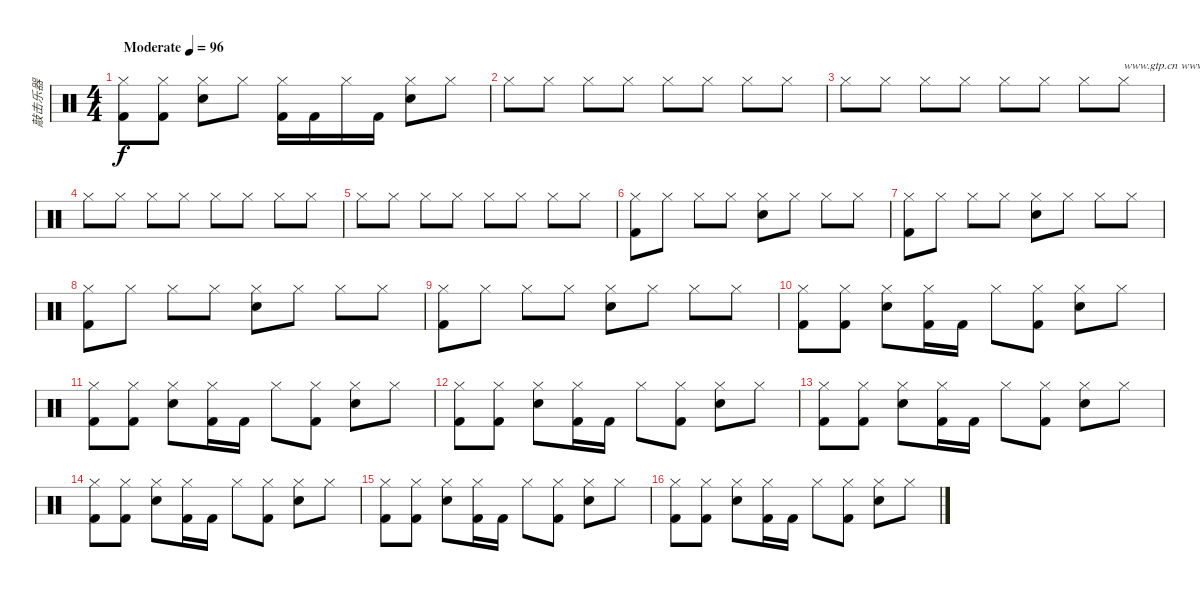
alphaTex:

\track ("敲击乐器" "敲击乐器") {instrument percussion}
\staff {score}
\articulation defaults
\ts (4 4)
\tempo (96 "Moderate")
\clef neutral
\ks c
("Hi-Hat (closed)" "Kick (hit) 2").8{dy f} ("Hi-Hat (closed)" "Kick (hit) 2").8 ("Hi-Hat (closed)" "Electric Snare (hit)").8 "Hi-Hat (closed)".8 ("Hi-Hat (closed)" "Kick (hit) 2").16 "Kick (hit) 2".16 "Hi-Hat (closed)".16 "Kick (hit) 2".16 ("Hi-Hat (closed)" "Electric Snare (hit)").8 "Hi-Hat (closed)".8 |
"Hi-Hat (closed)".8 "Hi-Hat (closed)".8 "Hi-Hat (closed)".8 "Hi-Hat (closed)".8 "Hi-Hat (closed)".8 "Hi-Hat (closed)".8 "Hi-Hat (closed)".8 "Hi-Hat (closed)".8 |
"Hi-Hat (closed)".8 "Hi-Hat (closed)".8 "Hi-Hat (closed)".8 "Hi-Hat (closed)".8 "Hi-Hat (closed)".8 "Hi-Hat (closed)".8 "Hi-Hat (closed)".8 "Hi-Hat (closed)".8{txt "www.gtp.cn www.51gtp.com联合为您提供优秀的GTP!"} |
"Hi-Hat (closed)".8 "Hi-Hat (closed)".8 "Hi-Hat (closed)".8 "Hi-Hat (closed)".8 "Hi-Hat (closed)".8 "Hi-Hat (closed)".8 "Hi-Hat (closed)".8 "Hi-Hat (closed)".8 |
"Hi-Hat (closed)".8 "Hi-Hat (closed)".8 "Hi-Hat (closed)".8 "Hi-Hat (closed)".8 "Hi-Hat (closed)".8 "Hi-Hat (closed)".8 "Hi-Hat (closed)".8 "Hi-Hat (closed)".8 |
("Hi-Hat (closed)" "Kick (hit) 2").8 "Hi-Hat (closed)".8 "Hi-Hat (closed)".8 "Hi-Hat (closed)".8 ("Hi-Hat (closed)" "Electric Snare (hit)").8 "Hi-Hat (closed)".8 "Hi-Hat (closed)".8 "Hi-Hat (closed)".8 |
("Hi-Hat (closed)" "Kick (hit) 2").8 "Hi-Hat (closed)".8 "Hi-Hat (closed)".8 "Hi-Hat (closed)".8 ("Hi-Hat (closed)" "Electric Snare (hit)").8 "Hi-Hat (closed)".8 "Hi-Hat (closed)".8 "Hi-Hat (closed)".8 |
("Hi-Hat (closed)" "Kick (hit) 2").8 "Hi-Hat (closed)".8 "Hi-Hat (closed)".8 "Hi-Hat (closed)".8 ("Hi-Hat (closed)" "Electric Snare (hit)").8 "Hi-Hat (closed)".8 "Hi-Hat (closed)".8 "Hi-Hat (closed)".8 |
("Hi-Hat (closed)" "Kick (hit) 2").8 "Hi-Hat (closed)".8 "Hi-Hat (closed)".8 "Hi-Hat (closed)".8 ("Hi-Hat (closed)" "Electric Snare (hit)").8 "Hi-Hat (closed)".8 "Hi-Hat (closed)".8 "Hi-Hat (closed)".8 |
("Hi-Hat (closed)" "Kick (hit) 2").8 ("Hi-Hat (closed)" "Kick (hit) 2").8 ("Hi-Hat (closed)" "Electric Snare (hit)").8 ("Hi-Hat (closed)" "Kick (hit) 2").16 "Kick (hit) 2".16 "Hi-Hat (closed)".8 ("Hi-Hat (closed)" "Kick (hit) 2").8 ("Hi-Hat (closed)" "Electric Snare (hit)").8 "Hi-Hat (closed)".8 |
("Hi-Hat (closed)" "Kick (hit) 2").8 ("Hi-Hat (closed)" "Kick (hit) 2").8 ("Hi-Hat (closed)" "Electric Snare (hit)").8 ("Hi-Hat (closed)" "Kick (hit) 2").16 "Kick (hit) 2".16 "Hi-Hat (closed)".8 ("Hi-Hat (closed)" "Kick (hit) 2").8 ("Hi-Hat (closed)" "Electric Snare (hit)").8 "Hi-Hat (closed)".8 |
("Hi-Hat (closed)" "Kick (hit) 2").8 ("Hi-Hat (closed)" "Kick (hit) 2").8 ("Hi-Hat (closed)" "Electric Snare (hit)").8 ("Hi-Hat (closed)" "Kick (hit) 2").16 "Kick (hit) 2".16 "Hi-Hat (closed)".8 ("Hi-Hat (closed)" "Kick (hit) 2").8 ("Hi-Hat (closed)" "Electric Snare (hit)").8 "Hi-Hat (closed)".8 |
("Hi-Hat (closed)" "Kick (hit) 2").8 ("Hi-Hat (closed)" "Kick (hit) 2").8 ("Hi-Hat (closed)" "Electric Snare (hit)").8 ("Hi-Hat (closed)" "Kick (hit) 2").16 "Kick (hit) 2".16 "Hi-Hat (closed)".8 ("Hi-Hat (closed)" "Kick (hit) 2").8 ("Hi-Hat (closed)" "Electric Snare (hit)").8 "Hi-Hat (closed)".8 |
("Hi-Hat (closed)" "Kick (hit) 2").8 ("Hi-Hat (closed)" "Kick (hit) 2").8 ("Hi-Hat (closed)" "Electric Snare (hit)").8 ("Hi-Hat (closed)" "Kick (hit) 2").16 "Kick (hit) 2".16 "Hi-Hat (closed)".8 ("Hi-Hat (closed)" "Kick (hit) 2").8 ("Hi-Hat (closed)" "Electric Snare (hit)").8 "Hi-Hat (closed)".8 |
("Hi-Hat (closed)" "Kick (hit) 2").8 ("Hi-Hat (closed)" "Kick (hit) 2").8 ("Hi-Hat (closed)" "Electric Snare (hit)").8 ("Hi-Hat (closed)" "Kick (hit) 2").16 "Kick (hit) 2".16 "Hi-Hat (closed)".8 ("Hi-Hat (closed)" "Kick (hit) 2").8 ("Hi-Hat (closed)" "Electric Snare (hit)").8 "Hi-Hat (closed)".8 |
("Hi-Hat (closed)" "Kick (hit) 2").8 ("Hi-Hat (closed)" "Kick (hit) 2").8 ("Hi-Hat (closed)" "Electric Snare (hit)").8 ("Hi-Hat (closed)" "Kick (hit) 2").16 "Kick (hit) 2".16 "Hi-Hat (closed)".8 ("Hi-Hat (closed)" "Kick (hit) 2").8 ("Hi-Hat (closed)" "Electric Snare (hit)").8 "Hi-Hat (closed)".8
